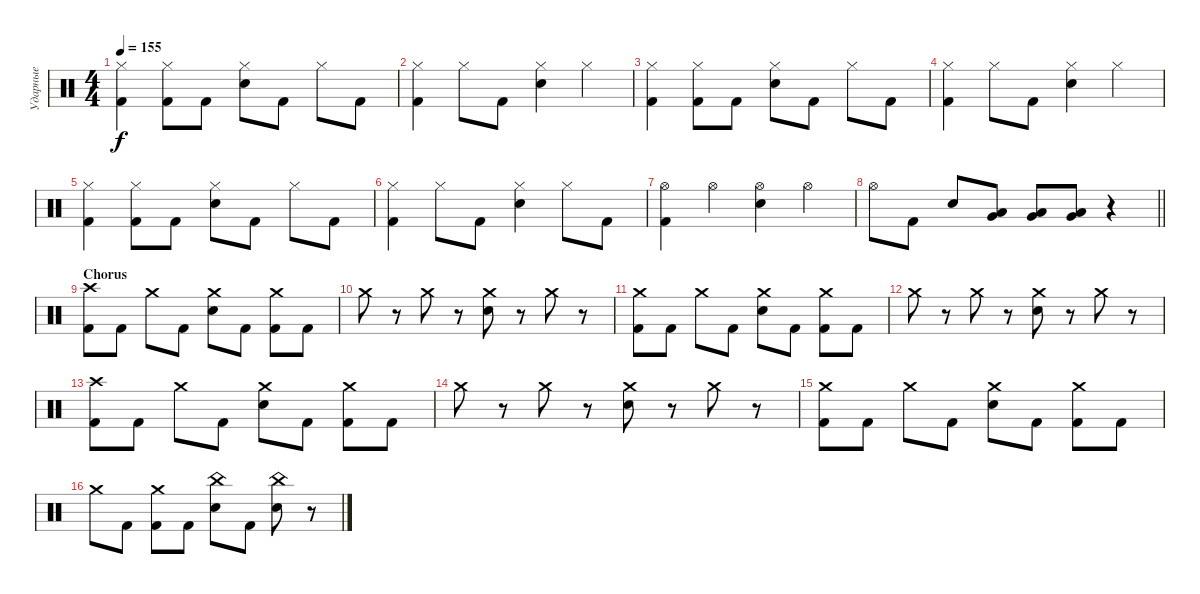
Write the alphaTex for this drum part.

\track ("Ударные" "Ударные") {instrument percussion}
\staff {score}
\articulation defaults
\ts (4 4)
\tempo 155
\clef neutral
\ks c
("Hi-Hat (closed)" "Kick (hit) 2").4{dy f} ("Hi-Hat (closed)" "Kick (hit) 2").8 "Kick (hit) 2".8 ("Hi-Hat (closed)" "Electric Snare (hit)").8 "Kick (hit) 2".8 "Hi-Hat (closed)".8 "Kick (hit) 2".8 |
("Hi-Hat (closed)" "Kick (hit) 2").4 "Hi-Hat (closed)".8 "Kick (hit) 2".8 ("Hi-Hat (closed)" "Electric Snare (hit)").4 "Hi-Hat (closed)".4 |
("Hi-Hat (closed)" "Kick (hit) 2").4 ("Hi-Hat (closed)" "Kick (hit) 2").8 "Kick (hit) 2".8 ("Hi-Hat (closed)" "Electric Snare (hit)").8 "Kick (hit) 2".8 "Hi-Hat (closed)".8 "Kick (hit) 2".8 |
("Hi-Hat (closed)" "Kick (hit) 2").4 "Hi-Hat (closed)".8 "Kick (hit) 2".8 ("Hi-Hat (closed)" "Electric Snare (hit)").4 "Hi-Hat (closed)".4 |
("Hi-Hat (closed)" "Kick (hit) 2").4 ("Hi-Hat (closed)" "Kick (hit) 2").8 "Kick (hit) 2".8 ("Hi-Hat (closed)" "Electric Snare (hit)").8 "Kick (hit) 2".8 "Hi-Hat (closed)".8 "Kick (hit) 2".8 |
("Hi-Hat (closed)" "Kick (hit) 2").4 "Hi-Hat (closed)".8 "Kick (hit) 2".8 ("Hi-Hat (closed)" "Electric Snare (hit)").4 "Hi-Hat (closed)".8 "Kick (hit) 2".8 |
("Hi-Hat (open)" "Kick (hit) 2").4 "Hi-Hat (open)".4 ("Hi-Hat (open)" "Electric Snare (hit)").4 "Hi-Hat (open)".4 |
\barLineRight lightlight "Hi-Hat (open)".8 "Kick (hit) 2".8 "Electric Snare (hit)".8
("Low Tom (hit)" "Very Low Tom (hit)").8 ("Low Tom (hit)" "Very Low Tom (hit)").8 ("Low Tom (hit)" "Very Low Tom (hit)").8 r.4 |
\section ("" "Chorus")
("Crash high (hit)" "Kick (hit) 2").8 "Kick (hit) 2".8 "Crash medium (hit)".8 "Kick (hit) 2".8 ("Crash medium (hit)" "Electric Snare (hit)").8 "Kick (hit) 2".8 ("Crash medium (hit)" "Kick (hit) 2").8 "Kick (hit) 2".8 |
"Crash medium (hit)".8 r.8 "Crash medium (hit)".8 r.8 ("Crash medium (hit)" "Electric Snare (hit)").8 r.8 "Crash medium (hit)".8 r.8 |
("Crash medium (hit)" "Kick (hit) 2").8 "Kick (hit) 2".8 "Crash medium (hit)".8 "Kick (hit) 2".8 ("Crash medium (hit)" "Electric Snare (hit)").8 "Kick (hit) 2".8 ("Crash medium (hit)" "Kick (hit) 2").8 "Kick (hit) 2".8 |
"Crash medium (hit)".8 r.8 "Crash medium (hit)".8 r.8 ("Crash medium (hit)" "Electric Snare (hit)").8 r.8 "Crash medium (hit)".8 r.8 |
("Crash high (hit)" "Kick (hit) 2").8 "Kick (hit) 2".8 "Crash medium (hit)".8 "Kick (hit) 2".8 ("Crash medium (hit)" "Electric Snare (hit)").8 "Kick (hit) 2".8 ("Crash medium (hit)" "Kick (hit) 2").8 "Kick (hit) 2".8 |
"Crash medium (hit)".8 r.8 "Crash medium (hit)".8 r.8 ("Crash medium (hit)" "Electric Snare (hit)").8 r.8 "Crash medium (hit)".8 r.8 |
("Crash medium (hit)" "Kick (hit) 2").8 "Kick (hit) 2".8 "Crash medium (hit)".8 "Kick (hit) 2".8 ("Crash medium (hit)" "Electric Snare (hit)").8 "Kick (hit) 2".8 ("Crash medium (hit)" "Kick (hit) 2").8 "Kick (hit) 2".8 |
"Crash medium (hit)".8 "Kick (hit) 2".8 ("Crash medium (hit)" "Kick (hit) 2").8 "Kick (hit) 2".8 ("China (hit)" "Electric Snare (hit)").8 "Kick (hit) 2".8 ("China (hit)" "Electric Snare (hit)").8 r.8
